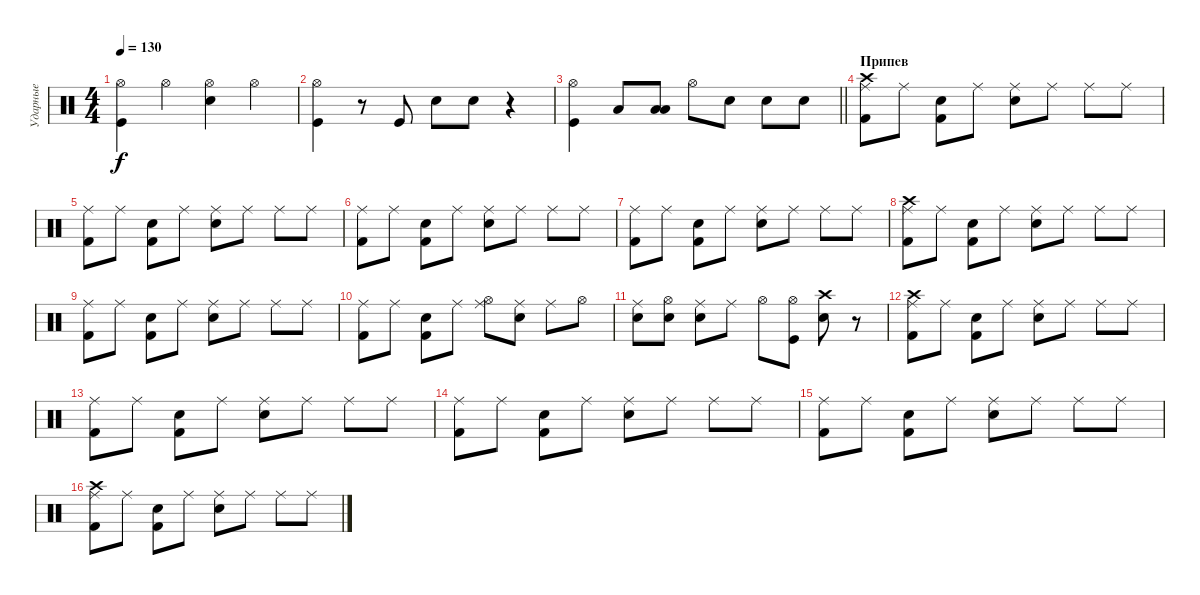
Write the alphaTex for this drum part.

\track ("Ударные" "Ударные") {instrument percussion}
\staff {score}
\articulation defaults
\ts (4 4)
\tempo 130
\clef neutral
\ks c
("Hi-Hat (open)" "Kick (hit)").4{dy f} "Hi-Hat (open)".4 ("Hi-Hat (open)" "Electric Snare (hit)").4 "Hi-Hat (open)".4 |
("Hi-Hat (open)" "Kick (hit)").4 r.8 "Kick (hit)".8 "Electric Snare (hit)".8 "Electric Snare (hit)".8 r.4 |
\barLineRight lightlight
("Hi-Hat (open)" "Kick (hit)").4 "Low Tom (hit)".8 ("Low Tom (hit)" "Low Tom (hit)").8 "Hi-Hat (open)".8 "Electric Snare (hit)".8 "Electric Snare (hit)".8 "Electric Snare (hit)".8 |
\section ("" "Припев")
("Crash high (hit)" "Ride (middle)" "Kick (hit) 2").8 "Ride (middle)".8 ("Snare (hit)" "Kick (hit) 2").8 "Ride (middle)".8 ("Ride (middle)" "Electric Snare (hit)").8 "Ride (middle)".8 "Ride (middle)".8 "Ride (middle)".8 |
("Ride (middle)" "Kick (hit) 2").8 "Ride (middle)".8 ("Snare (hit)" "Kick (hit) 2").8 "Ride (middle)".8 ("Ride (middle)" "Electric Snare (hit)").8 "Ride (middle)".8 "Ride (middle)".8 "Ride (middle)".8 |
("Ride (middle)" "Kick (hit) 2").8 "Ride (middle)".8 ("Snare (hit)" "Kick (hit) 2").8 "Ride (middle)".8 ("Ride (middle)" "Electric Snare (hit)").8 "Ride (middle)".8 "Ride (middle)".8 "Ride (middle)".8 |
("Ride (middle)" "Kick (hit) 2").8 "Ride (middle)".8 ("Snare (hit)" "Kick (hit) 2").8 "Ride (middle)".8 ("Ride (middle)" "Electric Snare (hit)").8 "Ride (middle)".8 "Ride (middle)".8 "Ride (middle)".8 |
("Crash high (hit)" "Ride (middle)" "Kick (hit) 2").8 "Ride (middle)".8 ("Snare (hit)" "Kick (hit) 2").8 "Ride (middle)".8 ("Ride (middle)" "Electric Snare (hit)").8 "Ride (middle)".8 "Ride (middle)".8 "Ride (middle)".8 |
("Ride (middle)" "Kick (hit) 2").8 "Ride (middle)".8 ("Snare (hit)" "Kick (hit) 2").8 "Ride (middle)".8 ("Ride (middle)" "Electric Snare (hit)").8 "Ride (middle)".8 "Ride (middle)".8 "Ride (middle)".8 |
("Ride (middle)" "Kick (hit) 2").8 "Ride (middle)".8 ("Snare (hit)" "Kick (hit) 2").8 "Ride (middle)".8 ("Ride (middle)" "Hi-Hat (open)").8 ("Electric Snare (hit)" "Ride (middle)").8 "Ride (middle)".8 "Hi-Hat (open)".8 |
("Electric Snare (hit)" "Ride (middle)").8 ("Electric Snare (hit)" "Hi-Hat (open)").8 ("Electric Snare (hit)" "Ride (middle)").8 "Ride (middle)".8 "Hi-Hat (open)".8 ("Kick (hit)" "Hi-Hat (open)").8 ("Electric Snare (hit)" "Crash high (hit)").8 r.8 |
("Crash high (hit)" "Ride (middle)" "Kick (hit) 2").8 "Ride (middle)".8 ("Snare (hit)" "Kick (hit) 2").8 "Ride (middle)".8 ("Ride (middle)" "Electric Snare (hit)").8 "Ride (middle)".8 "Ride (middle)".8 "Ride (middle)".8 |
("Ride (middle)" "Kick (hit) 2").8 "Ride (middle)".8 ("Snare (hit)" "Kick (hit) 2").8 "Ride (middle)".8 ("Ride (middle)" "Electric Snare (hit)").8 "Ride (middle)".8 "Ride (middle)".8 "Ride (middle)".8 |
("Ride (middle)" "Kick (hit) 2").8 "Ride (middle)".8 ("Snare (hit)" "Kick (hit) 2").8 "Ride (middle)".8 ("Ride (middle)" "Electric Snare (hit)").8 "Ride (middle)".8 "Ride (middle)".8 "Ride (middle)".8 |
("Ride (middle)" "Kick (hit) 2").8 "Ride (middle)".8 ("Snare (hit)" "Kick (hit) 2").8 "Ride (middle)".8 ("Ride (middle)" "Electric Snare (hit)").8 "Ride (middle)".8 "Ride (middle)".8 "Ride (middle)".8 |
("Crash high (hit)" "Ride (middle)" "Kick (hit) 2").8 "Ride (middle)".8 ("Snare (hit)" "Kick (hit) 2").8 "Ride (middle)".8 ("Ride (middle)" "Electric Snare (hit)").8 "Ride (middle)".8 "Ride (middle)".8 "Ride (middle)".8
